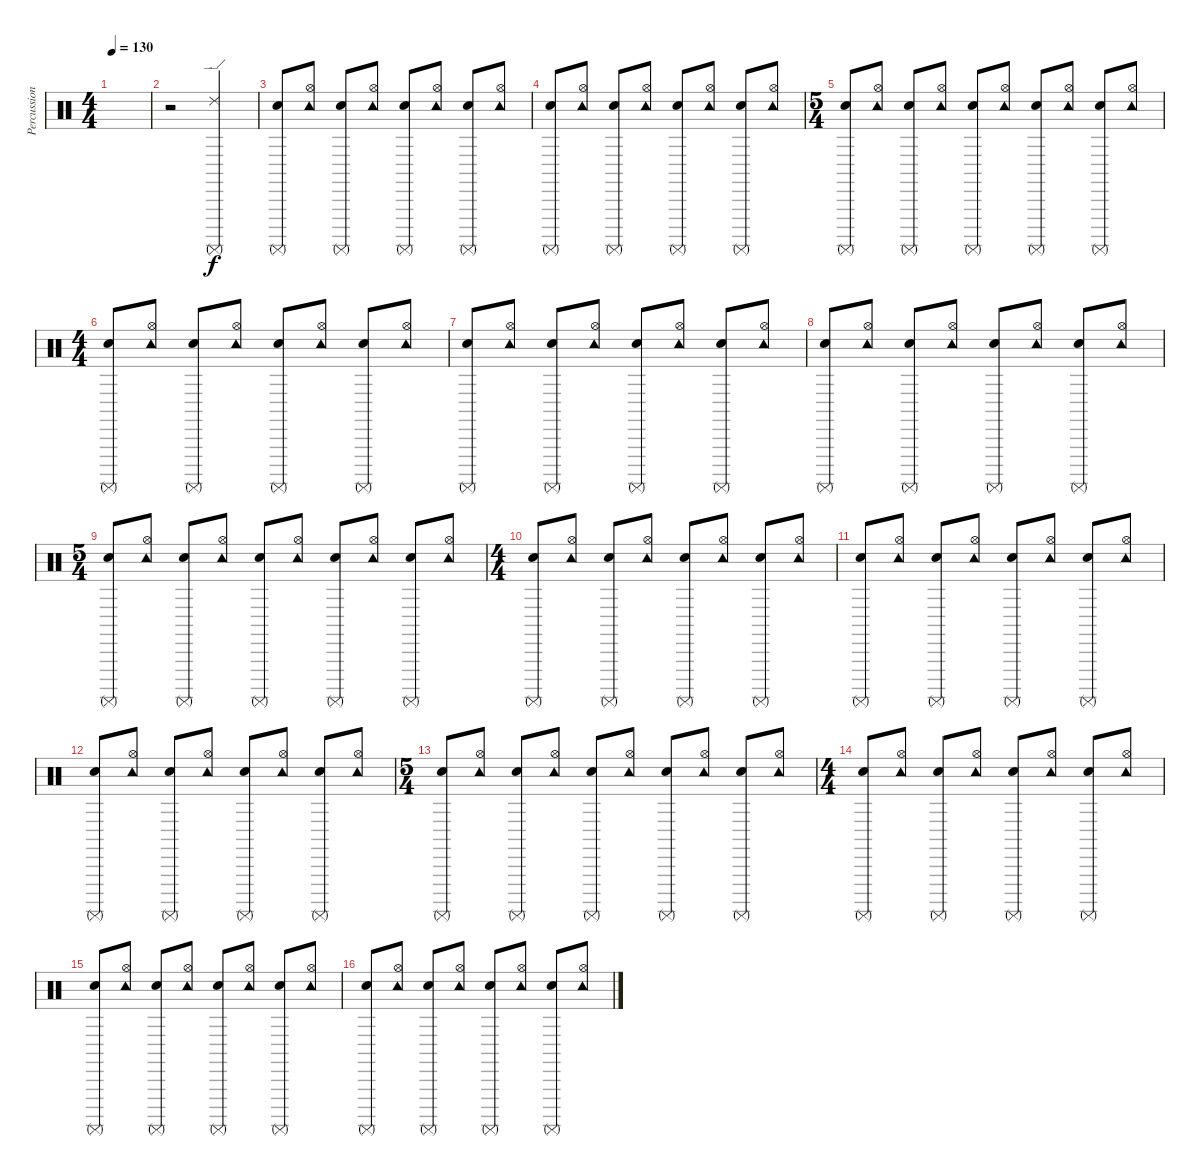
\track ("Percussions" "Percussion") {instrument percussion}
\staff {score}
\articulation defaults
\ts (4 4)
\tempo 130
\clef neutral
\ks c
|
r.2 ("Surdo (mute)" "Ride (edge) 2").2 |
("Surdo (mute)" "Hand Clap (hit)").8 ("Tambourine (hit)" "Hi-Hat (open)").8 ("Surdo (mute)" "Hand Clap (hit)").8 ("Tambourine (hit)" "Hi-Hat (open)").8 ("Surdo (mute)" "Hand Clap (hit)").8 ("Tambourine (hit)" "Hi-Hat (open)").8 ("Surdo (mute)" "Hand Clap (hit)").8 ("Tambourine (hit)" "Hi-Hat (open)").8 |
("Surdo (mute)" "Hand Clap (hit)").8 ("Tambourine (hit)" "Hi-Hat (open)").8 ("Surdo (mute)" "Hand Clap (hit)").8 ("Tambourine (hit)" "Hi-Hat (open)").8 ("Surdo (mute)" "Hand Clap (hit)").8 ("Tambourine (hit)" "Hi-Hat (open)").8 ("Surdo (mute)" "Hand Clap (hit)").8 ("Tambourine (hit)" "Hi-Hat (open)").8 |
\ts (5 4)
("Surdo (mute)" "Hand Clap (hit)").8 ("Tambourine (hit)" "Hi-Hat (open)").8 ("Surdo (mute)" "Hand Clap (hit)").8 ("Tambourine (hit)" "Hi-Hat (open)").8 ("Surdo (mute)" "Hand Clap (hit)").8 ("Tambourine (hit)" "Hi-Hat (open)").8 ("Surdo (mute)" "Hand Clap (hit)").8 ("Tambourine (hit)" "Hi-Hat (open)").8 ("Surdo (mute)" "Hand Clap (hit)").8 ("Tambourine (hit)" "Hi-Hat (open)").8 |
\ts (4 4)
("Surdo (mute)" "Hand Clap (hit)").8 ("Tambourine (hit)" "Hi-Hat (open)").8 ("Surdo (mute)" "Hand Clap (hit)").8 ("Tambourine (hit)" "Hi-Hat (open)").8 ("Surdo (mute)" "Hand Clap (hit)").8 ("Tambourine (hit)" "Hi-Hat (open)").8 ("Surdo (mute)" "Hand Clap (hit)").8 ("Tambourine (hit)" "Hi-Hat (open)").8 |
("Surdo (mute)" "Hand Clap (hit)").8 ("Tambourine (hit)" "Hi-Hat (open)").8 ("Surdo (mute)" "Hand Clap (hit)").8 ("Tambourine (hit)" "Hi-Hat (open)").8 ("Surdo (mute)" "Hand Clap (hit)").8 ("Tambourine (hit)" "Hi-Hat (open)").8 ("Surdo (mute)" "Hand Clap (hit)").8 ("Tambourine (hit)" "Hi-Hat (open)").8 |
("Surdo (mute)" "Hand Clap (hit)").8 ("Tambourine (hit)" "Hi-Hat (open)").8 ("Surdo (mute)" "Hand Clap (hit)").8 ("Tambourine (hit)" "Hi-Hat (open)").8 ("Surdo (mute)" "Hand Clap (hit)").8 ("Tambourine (hit)" "Hi-Hat (open)").8 ("Surdo (mute)" "Hand Clap (hit)").8 ("Tambourine (hit)" "Hi-Hat (open)").8 |
\ts (5 4)
("Surdo (mute)" "Hand Clap (hit)").8 ("Tambourine (hit)" "Hi-Hat (open)").8 ("Surdo (mute)" "Hand Clap (hit)").8 ("Tambourine (hit)" "Hi-Hat (open)").8 ("Surdo (mute)" "Hand Clap (hit)").8 ("Tambourine (hit)" "Hi-Hat (open)").8 ("Surdo (mute)" "Hand Clap (hit)").8 ("Tambourine (hit)" "Hi-Hat (open)").8 ("Surdo (mute)" "Hand Clap (hit)").8 ("Tambourine (hit)" "Hi-Hat (open)").8 |
\ts (4 4)
("Surdo (mute)" "Hand Clap (hit)").8 ("Tambourine (hit)" "Hi-Hat (open)").8 ("Surdo (mute)" "Hand Clap (hit)").8 ("Tambourine (hit)" "Hi-Hat (open)").8 ("Surdo (mute)" "Hand Clap (hit)").8 ("Tambourine (hit)" "Hi-Hat (open)").8 ("Surdo (mute)" "Hand Clap (hit)").8 ("Tambourine (hit)" "Hi-Hat (open)").8 |
("Surdo (mute)" "Hand Clap (hit)").8 ("Tambourine (hit)" "Hi-Hat (open)").8 ("Surdo (mute)" "Hand Clap (hit)").8 ("Tambourine (hit)" "Hi-Hat (open)").8 ("Surdo (mute)" "Hand Clap (hit)").8 ("Tambourine (hit)" "Hi-Hat (open)").8 ("Surdo (mute)" "Hand Clap (hit)").8 ("Tambourine (hit)" "Hi-Hat (open)").8 |
("Surdo (mute)" "Hand Clap (hit)").8 ("Tambourine (hit)" "Hi-Hat (open)").8 ("Surdo (mute)" "Hand Clap (hit)").8 ("Tambourine (hit)" "Hi-Hat (open)").8 ("Surdo (mute)" "Hand Clap (hit)").8 ("Tambourine (hit)" "Hi-Hat (open)").8 ("Surdo (mute)" "Hand Clap (hit)").8 ("Tambourine (hit)" "Hi-Hat (open)").8 |
\ts (5 4)
("Surdo (mute)" "Hand Clap (hit)").8 ("Tambourine (hit)" "Hi-Hat (open)").8 ("Surdo (mute)" "Hand Clap (hit)").8 ("Tambourine (hit)" "Hi-Hat (open)").8 ("Surdo (mute)" "Hand Clap (hit)").8 ("Tambourine (hit)" "Hi-Hat (open)").8 ("Surdo (mute)" "Hand Clap (hit)").8 ("Tambourine (hit)" "Hi-Hat (open)").8 ("Surdo (mute)" "Hand Clap (hit)").8 ("Tambourine (hit)" "Hi-Hat (open)").8 |
\ts (4 4)
("Surdo (mute)" "Hand Clap (hit)").8 ("Tambourine (hit)" "Hi-Hat (open)").8 ("Surdo (mute)" "Hand Clap (hit)").8 ("Tambourine (hit)" "Hi-Hat (open)").8 ("Surdo (mute)" "Hand Clap (hit)").8 ("Tambourine (hit)" "Hi-Hat (open)").8 ("Surdo (mute)" "Hand Clap (hit)").8 ("Tambourine (hit)" "Hi-Hat (open)").8 |
("Surdo (mute)" "Hand Clap (hit)").8 ("Tambourine (hit)" "Hi-Hat (open)").8 ("Surdo (mute)" "Hand Clap (hit)").8 ("Tambourine (hit)" "Hi-Hat (open)").8 ("Surdo (mute)" "Hand Clap (hit)").8 ("Tambourine (hit)" "Hi-Hat (open)").8 ("Surdo (mute)" "Hand Clap (hit)").8 ("Tambourine (hit)" "Hi-Hat (open)").8 |
("Surdo (mute)" "Hand Clap (hit)").8 ("Tambourine (hit)" "Hi-Hat (open)").8 ("Surdo (mute)" "Hand Clap (hit)").8 ("Tambourine (hit)" "Hi-Hat (open)").8 ("Surdo (mute)" "Hand Clap (hit)").8 ("Tambourine (hit)" "Hi-Hat (open)").8 ("Surdo (mute)" "Hand Clap (hit)").8 ("Tambourine (hit)" "Hi-Hat (open)").8
